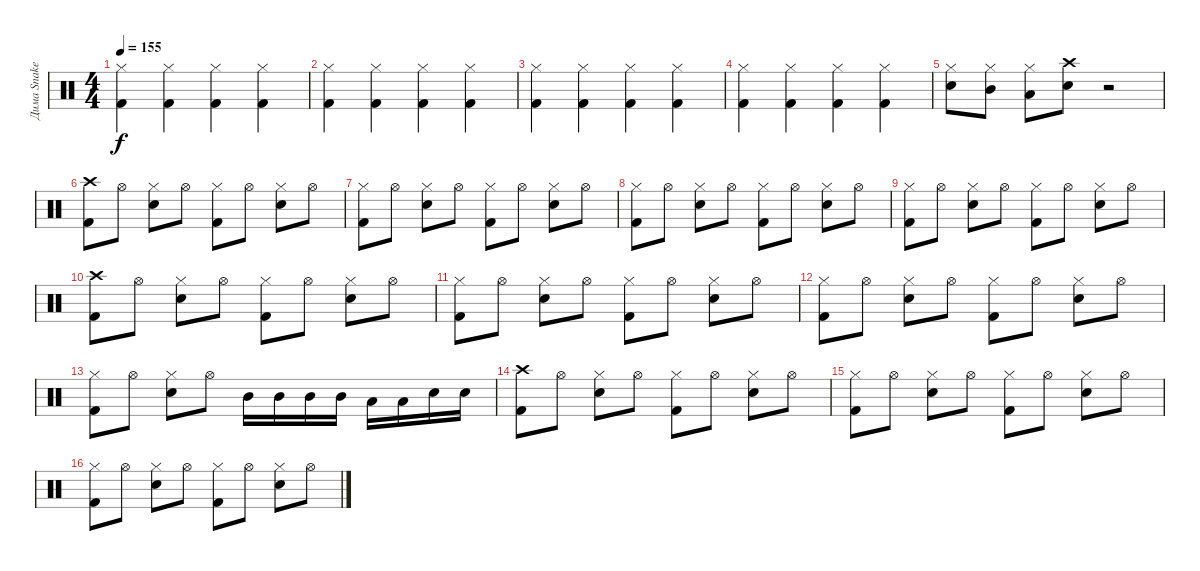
\track ("Дима Snake Хакимов" "Дима Snake") {instrument percussion}
\staff {score}
\articulation defaults
\ts (4 4)
\tempo 155
\clef neutral
\ks c
("Hi-Hat (closed)" "Kick (hit) 2").4{dy f} ("Hi-Hat (closed)" "Kick (hit) 2").4 ("Hi-Hat (closed)" "Kick (hit) 2").4 ("Hi-Hat (closed)" "Kick (hit) 2").4 |
("Hi-Hat (closed)" "Kick (hit) 2").4 ("Hi-Hat (closed)" "Kick (hit) 2").4 ("Hi-Hat (closed)" "Kick (hit) 2").4 ("Hi-Hat (closed)" "Kick (hit) 2").4 |
("Hi-Hat (closed)" "Kick (hit) 2").4 ("Hi-Hat (closed)" "Kick (hit) 2").4 ("Hi-Hat (closed)" "Kick (hit) 2").4 ("Hi-Hat (closed)" "Kick (hit) 2").4 |
("Hi-Hat (closed)" "Kick (hit) 2").4 ("Hi-Hat (closed)" "Kick (hit) 2").4 ("Hi-Hat (closed)" "Kick (hit) 2").4 ("Hi-Hat (closed)" "Kick (hit) 2").4 |
("Hi-Hat (closed)" "Snare (hit) 2").8 ("Hi-Hat (closed)" "Mid Tom (hit)").8 ("Hi-Hat (closed)" "Low Tom (hit)").8 ("Crash high (hit)" "Snare (hit) 2").8 r.2 |
("Crash high (hit)" "Kick (hit) 2").8 "Hi-Hat (open)".8 ("Hi-Hat (closed)" "Snare (hit) 2").8 "Hi-Hat (open)".8 ("Hi-Hat (closed)" "Kick (hit) 2").8 "Hi-Hat (open)".8 ("Hi-Hat (closed)" "Snare (hit) 2").8 "Hi-Hat (open)".8 |
("Hi-Hat (closed)" "Kick (hit) 2").8 "Hi-Hat (open)".8 ("Hi-Hat (closed)" "Snare (hit) 2").8 "Hi-Hat (open)".8 ("Hi-Hat (closed)" "Kick (hit) 2").8 "Hi-Hat (open)".8 ("Hi-Hat (closed)" "Snare (hit) 2").8 "Hi-Hat (open)".8 |
("Hi-Hat (closed)" "Kick (hit) 2").8 "Hi-Hat (open)".8 ("Hi-Hat (closed)" "Snare (hit) 2").8 "Hi-Hat (open)".8 ("Hi-Hat (closed)" "Kick (hit) 2").8 "Hi-Hat (open)".8 ("Hi-Hat (closed)" "Snare (hit) 2").8 "Hi-Hat (open)".8 |
("Hi-Hat (closed)" "Kick (hit) 2").8 "Hi-Hat (open)".8 ("Hi-Hat (closed)" "Snare (hit) 2").8 "Hi-Hat (open)".8 ("Hi-Hat (closed)" "Kick (hit) 2").8 "Hi-Hat (open)".8 ("Hi-Hat (closed)" "Snare (hit) 2").8 "Hi-Hat (open)".8 |
("Crash high (hit)" "Kick (hit) 2").8 "Hi-Hat (open)".8 ("Hi-Hat (closed)" "Snare (hit) 2").8 "Hi-Hat (open)".8 ("Hi-Hat (closed)" "Kick (hit) 2").8 "Hi-Hat (open)".8 ("Hi-Hat (closed)" "Snare (hit) 2").8 "Hi-Hat (open)".8 |
("Hi-Hat (closed)" "Kick (hit) 2").8 "Hi-Hat (open)".8 ("Hi-Hat (closed)" "Snare (hit) 2").8 "Hi-Hat (open)".8 ("Hi-Hat (closed)" "Kick (hit) 2").8 "Hi-Hat (open)".8 ("Hi-Hat (closed)" "Snare (hit) 2").8 "Hi-Hat (open)".8 |
("Hi-Hat (closed)" "Kick (hit) 2").8 "Hi-Hat (open)".8 ("Hi-Hat (closed)" "Snare (hit) 2").8 "Hi-Hat (open)".8 ("Hi-Hat (closed)" "Kick (hit) 2").8 "Hi-Hat (open)".8 ("Hi-Hat (closed)" "Snare (hit) 2").8 "Hi-Hat (open)".8 |
("Hi-Hat (closed)" "Kick (hit) 2").8 "Hi-Hat (open)".8 ("Hi-Hat (closed)" "Snare (hit) 2").8 "Hi-Hat (open)".8 "Mid Tom (hit)".16 "Mid Tom (hit)".16 "Mid Tom (hit)".16 "Mid Tom (hit)".16 "Low Tom (hit)".16 "Low Tom (hit)".16 "Snare (hit) 2".16 "Snare (hit) 2".16 |
("Crash high (hit)" "Kick (hit) 2").8 "Hi-Hat (open)".8 ("Hi-Hat (closed)" "Snare (hit) 2").8 "Hi-Hat (open)".8 ("Hi-Hat (closed)" "Kick (hit) 2").8 "Hi-Hat (open)".8 ("Hi-Hat (closed)" "Snare (hit) 2").8 "Hi-Hat (open)".8 |
("Hi-Hat (closed)" "Kick (hit) 2").8 "Hi-Hat (open)".8 ("Hi-Hat (closed)" "Snare (hit) 2").8 "Hi-Hat (open)".8 ("Hi-Hat (closed)" "Kick (hit) 2").8 "Hi-Hat (open)".8 ("Hi-Hat (closed)" "Snare (hit) 2").8 "Hi-Hat (open)".8 |
("Hi-Hat (closed)" "Kick (hit) 2").8 "Hi-Hat (open)".8 ("Hi-Hat (closed)" "Snare (hit) 2").8 "Hi-Hat (open)".8 ("Hi-Hat (closed)" "Kick (hit) 2").8 "Hi-Hat (open)".8 ("Hi-Hat (closed)" "Snare (hit) 2").8 "Hi-Hat (open)".8
